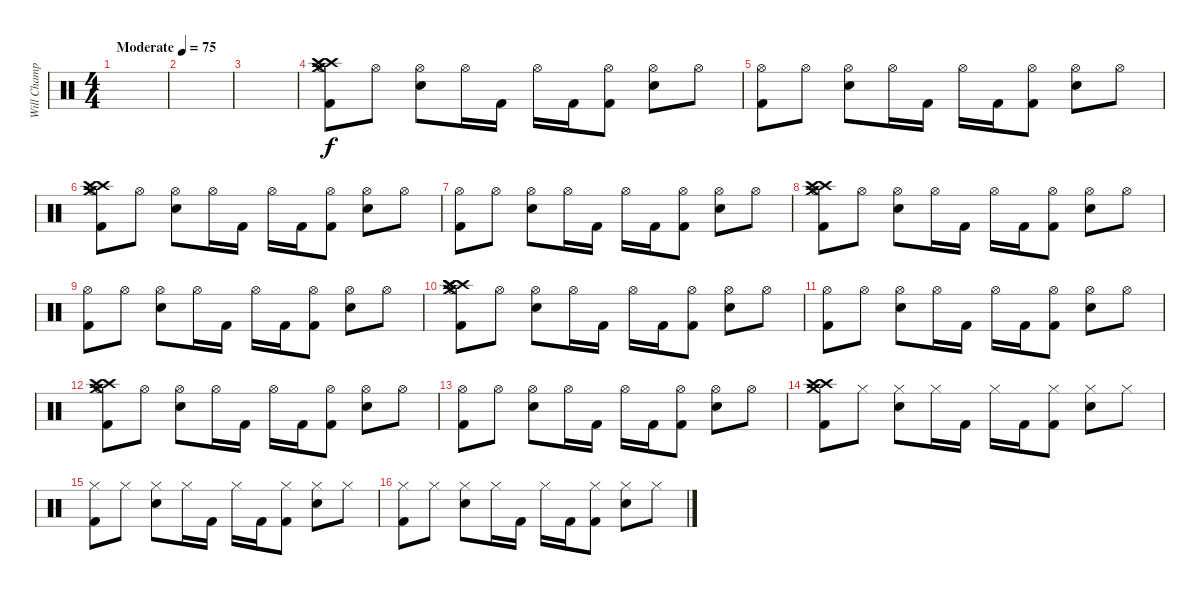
\track ("Will Champion(Drums)" "Will Champ") {instrument percussion}
\staff {score}
\articulation defaults
\ts (4 4)
\tempo (75 "Moderate")
\clef neutral
\ks c
|
|
|
("Crash high (hit)" "Crash medium (hit)" "Crash high (hit)" "Hi-Hat (open)" "Kick (hit) 2").8 "Hi-Hat (open)".8 ("Hi-Hat (open)" "Electric Snare (hit)").8 "Hi-Hat (open)".16 "Kick (hit) 2".16 "Hi-Hat (open)".16 "Kick (hit) 2".16 ("Hi-Hat (open)" "Kick (hit) 2").8 ("Hi-Hat (open)" "Electric Snare (hit)").8 "Hi-Hat (open)".8 |
("Hi-Hat (open)" "Kick (hit) 2").8 "Hi-Hat (open)".8 ("Hi-Hat (open)" "Electric Snare (hit)").8 "Hi-Hat (open)".16 "Kick (hit) 2".16 "Hi-Hat (open)".16 "Kick (hit) 2".16 ("Hi-Hat (open)" "Kick (hit) 2").8 ("Hi-Hat (open)" "Electric Snare (hit)").8 "Hi-Hat (open)".8 |
("Crash high (hit)" "Crash medium (hit)" "Crash high (hit)" "Hi-Hat (open)" "Kick (hit) 2").8 "Hi-Hat (open)".8 ("Hi-Hat (open)" "Electric Snare (hit)").8 "Hi-Hat (open)".16 "Kick (hit) 2".16 "Hi-Hat (open)".16 "Kick (hit) 2".16 ("Hi-Hat (open)" "Kick (hit) 2").8 ("Hi-Hat (open)" "Electric Snare (hit)").8 "Hi-Hat (open)".8 |
("Hi-Hat (open)" "Kick (hit) 2").8 "Hi-Hat (open)".8 ("Hi-Hat (open)" "Electric Snare (hit)").8 "Hi-Hat (open)".16 "Kick (hit) 2".16 "Hi-Hat (open)".16 "Kick (hit) 2".16 ("Hi-Hat (open)" "Kick (hit) 2").8 ("Hi-Hat (open)" "Electric Snare (hit)").8 "Hi-Hat (open)".8 |
("Crash high (hit)" "Crash medium (hit)" "Crash high (hit)" "Hi-Hat (open)" "Kick (hit) 2").8 "Hi-Hat (open)".8 ("Hi-Hat (open)" "Electric Snare (hit)").8 "Hi-Hat (open)".16 "Kick (hit) 2".16 "Hi-Hat (open)".16 "Kick (hit) 2".16 ("Hi-Hat (open)" "Kick (hit) 2").8 ("Hi-Hat (open)" "Electric Snare (hit)").8 "Hi-Hat (open)".8 |
("Hi-Hat (open)" "Kick (hit) 2").8 "Hi-Hat (open)".8 ("Hi-Hat (open)" "Electric Snare (hit)").8 "Hi-Hat (open)".16 "Kick (hit) 2".16 "Hi-Hat (open)".16 "Kick (hit) 2".16 ("Hi-Hat (open)" "Kick (hit) 2").8 ("Hi-Hat (open)" "Electric Snare (hit)").8 "Hi-Hat (open)".8 |
("Crash high (hit)" "Crash medium (hit)" "Crash high (hit)" "Hi-Hat (open)" "Crash high (hit)" "Kick (hit) 2").8 "Hi-Hat (open)".8 ("Hi-Hat (open)" "Electric Snare (hit)").8 "Hi-Hat (open)".16 "Kick (hit) 2".16 "Hi-Hat (open)".16 "Kick (hit) 2".16 ("Hi-Hat (open)" "Kick (hit) 2").8 ("Hi-Hat (open)" "Electric Snare (hit)").8 "Hi-Hat (open)".8 |
("Hi-Hat (open)" "Kick (hit) 2").8 "Hi-Hat (open)".8 ("Hi-Hat (open)" "Electric Snare (hit)").8 "Hi-Hat (open)".16 "Kick (hit) 2".16 "Hi-Hat (open)".16 "Kick (hit) 2".16 ("Hi-Hat (open)" "Kick (hit) 2").8 ("Hi-Hat (open)" "Electric Snare (hit)").8 "Hi-Hat (open)".8 |
("Crash high (hit)" "Crash medium (hit)" "Crash high (hit)" "Hi-Hat (open)" "Kick (hit) 2").8 "Hi-Hat (open)".8 ("Hi-Hat (open)" "Electric Snare (hit)").8 "Hi-Hat (open)".16 "Kick (hit) 2".16 "Hi-Hat (open)".16 "Kick (hit) 2".16 ("Hi-Hat (open)" "Kick (hit) 2").8 ("Hi-Hat (open)" "Electric Snare (hit)").8 "Hi-Hat (open)".8 |
("Hi-Hat (open)" "Kick (hit) 2").8 "Hi-Hat (open)".8 ("Hi-Hat (open)" "Electric Snare (hit)").8 "Hi-Hat (open)".16 "Kick (hit) 2".16 "Hi-Hat (open)".16 "Kick (hit) 2".16 ("Hi-Hat (open)" "Kick (hit) 2").8 ("Hi-Hat (open)" "Electric Snare (hit)").8 "Hi-Hat (open)".8 |
("Crash high (hit)" "Crash medium (hit)" "Crash high (hit)" "Kick (hit) 2").8 "Hi-Hat (closed)".8 ("Hi-Hat (closed)" "Electric Snare (hit)").8 "Hi-Hat (closed)".16 "Kick (hit) 2".16 "Hi-Hat (closed)".16 "Kick (hit) 2".16 ("Hi-Hat (closed)" "Kick (hit) 2").8 ("Hi-Hat (closed)" "Electric Snare (hit)").8 "Hi-Hat (closed)".8 |
("Hi-Hat (closed)" "Kick (hit) 2").8 "Hi-Hat (closed)".8 ("Hi-Hat (closed)" "Electric Snare (hit)").8 "Hi-Hat (closed)".16 "Kick (hit) 2".16 "Hi-Hat (closed)".16 "Kick (hit) 2".16 ("Hi-Hat (closed)" "Kick (hit) 2").8 ("Hi-Hat (closed)" "Electric Snare (hit)").8 "Hi-Hat (closed)".8 |
("Hi-Hat (closed)" "Kick (hit) 2").8 "Hi-Hat (closed)".8 ("Hi-Hat (closed)" "Electric Snare (hit)").8 "Hi-Hat (closed)".16 "Kick (hit) 2".16 "Hi-Hat (closed)".16 "Kick (hit) 2".16 ("Hi-Hat (closed)" "Kick (hit) 2").8 ("Hi-Hat (closed)" "Electric Snare (hit)").8 "Hi-Hat (closed)".8
